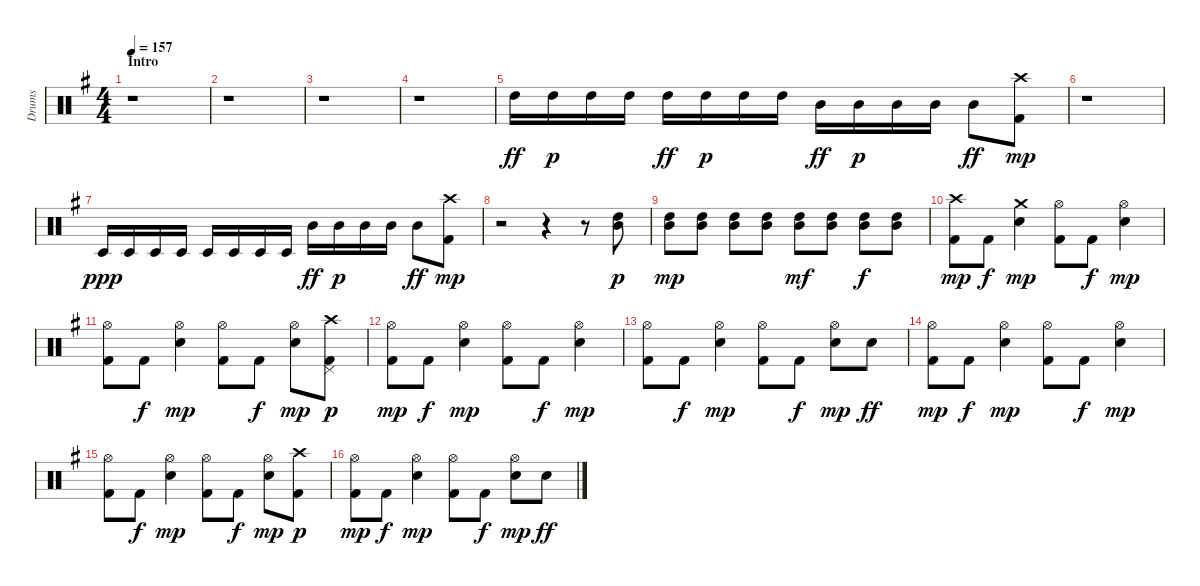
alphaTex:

\track ("Drums" "Drums") {instrument percussion}
\staff {score}
\articulation defaults
\ts (4 4)
\section ("" "Intro")
\tempo 157
\clef neutral
\ks g
r.1{dy ff} |
r.1 |
r.1 |
r.1 |
"High Tom (hit)".16 "High Tom (hit)".16{dy p} "High Tom (hit)".16 "High Tom (hit)".16 "High Tom (hit)".16{dy ff} "High Tom (hit)".16{dy p} "High Tom (hit)".16 "High Tom (hit)".16 "Mid Tom (hit)".16{dy ff} "Mid Tom (hit)".16{dy p} "Mid Tom (hit)".16 "Mid Tom (hit)".16 "Mid Tom (hit)".8{dy ff} ("Kick (hit) 2" "Crash high (hit)").8{dy mp} |
r.1 |
"Timbale low (hit)".16{dy ppp} "Timbale low (hit)".16 "Timbale low (hit)".16 "Timbale low (hit)".16 "Timbale low (hit)".16 "Timbale low (hit)".16 "Timbale low (hit)".16 "Timbale low (hit)".16 "Mid Tom (hit)".16{dy ff} "Mid Tom (hit)".16{dy p} "Mid Tom (hit)".16 "Mid Tom (hit)".16 "Mid Tom (hit)".8{dy ff} ("Kick (hit) 2" "Crash high (hit)").8{dy mp} |
r.2 r.4 r.8 ("High Tom (hit)" "Mid Tom (hit)").8{dy p} |
("High Tom (hit)" "Mid Tom (hit)").8{dy mp} ("High Tom (hit)" "Mid Tom (hit)").8 ("High Tom (hit)" "Mid Tom (hit)").8 ("High Tom (hit)" "Mid Tom (hit)").8 ("High Tom (hit)" "Mid Tom (hit)").8{dy mf} ("High Tom (hit)" "Mid Tom (hit)").8 ("High Tom (hit)" "Mid Tom (hit)").8{dy f} ("High Tom (hit)" "Mid Tom (hit)").8 |
("Kick (hit) 2" "Crash high (hit)").8{dy mp} "Kick (hit) 2".8{dy f} ("Electric Snare (hit)" "Crash medium (hit)").4{dy mp} ("Kick (hit) 2" "Hi-Hat (open)").8 "Kick (hit) 2".8{dy f} ("Electric Snare (hit)" "Hi-Hat (open)").4{dy mp} |
("Kick (hit) 2" "Hi-Hat (open)").8 "Kick (hit) 2".8{dy f} ("Electric Snare (hit)" "Hi-Hat (open)").4{dy mp} ("Kick (hit) 2" "Hi-Hat (open)").8 "Kick (hit) 2".8{dy f} ("Electric Snare (hit)" "Hi-Hat (open)").8{dy mp} ("Kick (hit) 2" "Pedal Hi-Hat (hit)" "Crash high (hit)").8{dy p} |
("Kick (hit) 2" "Hi-Hat (open)").8{dy mp} "Kick (hit) 2".8{dy f} ("Electric Snare (hit)" "Hi-Hat (open)").4{dy mp} ("Kick (hit) 2" "Hi-Hat (open)").8 "Kick (hit) 2".8{dy f} ("Electric Snare (hit)" "Hi-Hat (open)").4{dy mp} |
("Kick (hit) 2" "Hi-Hat (open)").8 "Kick (hit) 2".8{dy f} ("Electric Snare (hit)" "Hi-Hat (open)").4{dy mp} ("Kick (hit) 2" "Hi-Hat (open)").8 "Kick (hit) 2".8{dy f} ("Electric Snare (hit)" "Hi-Hat (open)").8{dy mp} "Electric Snare (hit)".8{dy ff} |
("Kick (hit) 2" "Hi-Hat (open)").8{dy mp} "Kick (hit) 2".8{dy f} ("Electric Snare (hit)" "Hi-Hat (open)").4{dy mp} ("Kick (hit) 2" "Hi-Hat (open)").8 "Kick (hit) 2".8{dy f} ("Electric Snare (hit)" "Hi-Hat (open)").4{dy mp} |
("Kick (hit) 2" "Hi-Hat (open)").8 "Kick (hit) 2".8{dy f} ("Electric Snare (hit)" "Hi-Hat (open)").4{dy mp} ("Kick (hit) 2" "Hi-Hat (open)").8 "Kick (hit) 2".8{dy f} ("Electric Snare (hit)" "Hi-Hat (open)").8{dy mp} ("Kick (hit) 2" "Crash high (hit)").8{dy p} |
("Kick (hit) 2" "Hi-Hat (open)").8{dy mp} "Kick (hit) 2".8{dy f} ("Electric Snare (hit)" "Hi-Hat (open)").4{dy mp} ("Kick (hit) 2" "Hi-Hat (open)").8 "Kick (hit) 2".8{dy f} ("Electric Snare (hit)" "Hi-Hat (open)").8{dy mp} "Electric Snare (hit)".8{dy ff}
